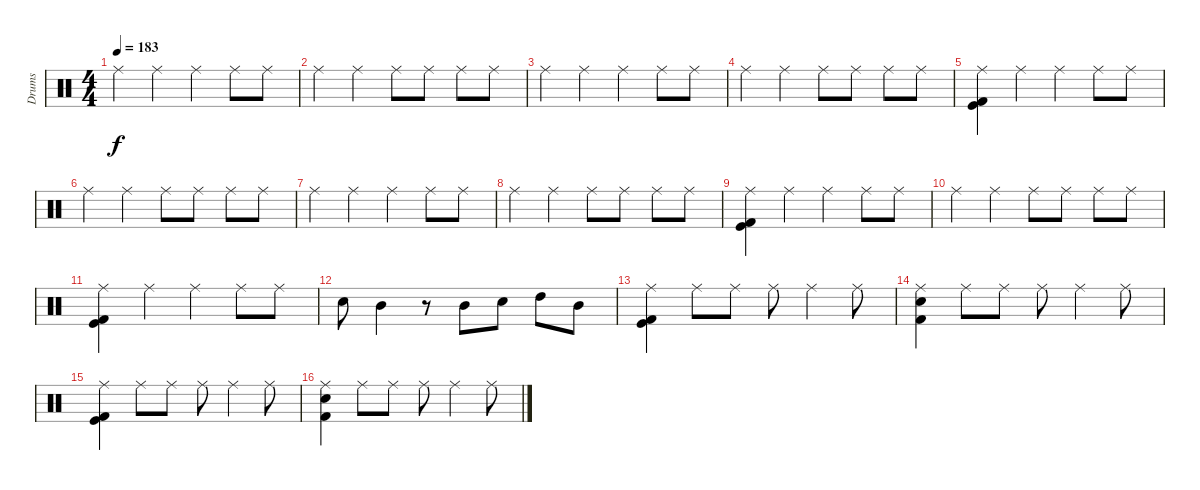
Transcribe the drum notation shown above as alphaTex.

\track ("Drums" "Drums") {instrument percussion}
\staff {score}
\articulation defaults
\ts (4 4)
\tempo 183
\clef neutral
\ks c "Ride (middle)".4{dy f} "Ride (middle)".4 "Ride (middle)".4 "Ride (middle)".8 "Ride (middle)".8
|
"Ride (middle)".4 "Ride (middle)".4 "Ride (middle)".8 "Ride (middle)".8 "Ride (middle)".8 "Ride (middle)".8 |
"Ride (middle)".4 "Ride (middle)".4 "Ride (middle)".4 "Ride (middle)".8 "Ride (middle)".8 |
"Ride (middle)".4 "Ride (middle)".4 "Ride (middle)".8 "Ride (middle)".8 "Ride (middle)".8 "Ride (middle)".8 |
("Ride (middle)" "Kick (hit)" "Kick (hit) 2").4 "Ride (middle)".4 "Ride (middle)".4 "Ride (middle)".8 "Ride (middle)".8 |
"Ride (middle)".4 "Ride (middle)".4 "Ride (middle)".8 "Ride (middle)".8 "Ride (middle)".8 "Ride (middle)".8 |
"Ride (middle)".4 "Ride (middle)".4 "Ride (middle)".4 "Ride (middle)".8 "Ride (middle)".8 |
"Ride (middle)".4 "Ride (middle)".4 "Ride (middle)".8 "Ride (middle)".8 "Ride (middle)".8 "Ride (middle)".8 |
("Ride (middle)" "Kick (hit) 2" "Kick (hit)").4 "Ride (middle)".4 "Ride (middle)".4 "Ride (middle)".8 "Ride (middle)".8 |
"Ride (middle)".4 "Ride (middle)".4 "Ride (middle)".8 "Ride (middle)".8 "Ride (middle)".8 "Ride (middle)".8 |
("Ride (middle)" "Kick (hit) 2" "Kick (hit)").4 "Ride (middle)".4 "Ride (middle)".4 "Ride (middle)".8 "Ride (middle)".8 |
"Electric Snare (hit)".8 "Mid Tom (hit)".4 r.8 "Mid Tom (hit)".8 "Electric Snare (hit)".8 "High Tom (hit)".8 "Mid Tom (hit)".8 |
("Ride (middle)" "Kick (hit)" "Kick (hit) 2").4 "Ride (middle)".8 "Ride (middle)".8 "Ride (middle)".8 "Ride (middle)".4 "Ride (middle)".8 |
("Ride (middle)" "Electric Snare (hit)" "Kick (hit) 2").4 "Ride (middle)".8 "Ride (middle)".8 "Ride (middle)".8 "Ride (middle)".4 "Ride (middle)".8 |
("Ride (middle)" "Kick (hit)" "Kick (hit) 2").4 "Ride (middle)".8 "Ride (middle)".8 "Ride (middle)".8 "Ride (middle)".4 "Ride (middle)".8 |
("Ride (middle)" "Electric Snare (hit)" "Kick (hit) 2").4 "Ride (middle)".8 "Ride (middle)".8 "Ride (middle)".8 "Ride (middle)".4 "Ride (middle)".8
